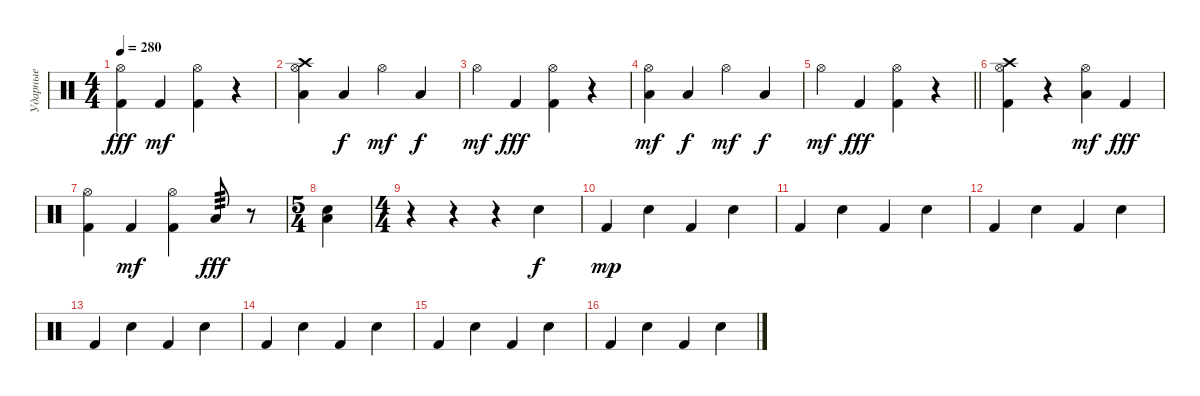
\track ("Ударные" "Ударные") {instrument percussion}
\staff {score}
\articulation defaults
\ts (4 4)
\tempo 280
\clef neutral
\ks c
("Hi-Hat (open)" "Kick (hit) 2").4{dy fff} "Kick (hit) 2".4{dy mf} ("Hi-Hat (open)" "Kick (hit) 2").4 r.4 |
("Hi-Hat (open)" "Crash high (hit)" "Low Tom (hit)").4 "Low Tom (hit)".4{dy f} "Hi-Hat (open)".4{dy mf} "Low Tom (hit)".4{dy f} |
"Hi-Hat (open)".4{dy mf} "Kick (hit) 2".4{dy fff} ("Hi-Hat (open)" "Kick (hit) 2").4 r.4 |
("Hi-Hat (open)" "Low Tom (hit)").4{dy mf} "Low Tom (hit)".4{dy f} "Hi-Hat (open)".4{dy mf} "Low Tom (hit)".4{dy f} |
\barLineRight lightlight "Hi-Hat (open)".4{dy mf} "Kick (hit) 2".4{dy fff}
("Hi-Hat (open)" "Kick (hit) 2").4 r.4 |
("Hi-Hat (open)" "Crash high (hit)" "Kick (hit) 2").4 r.4 ("Hi-Hat (open)" "Low Tom (hit)").4{dy mf} "Kick (hit) 2".4{dy fff} |
("Hi-Hat (open)" "Kick (hit) 2").4 "Kick (hit) 2".4{dy mf} ("Hi-Hat (open)" "Kick (hit) 2").4 "Low Tom (hit)".8{tp 3 dy fff} r.8 |
\ts (5 4)
("Low Tom (hit)" "Snare (hit) 2").4 |
\ts (4 4)
r.4 r.4 r.4 "Snare (hit) 2".4{dy f} |
"Kick (hit) 2".4{dy mp} "Snare (hit) 2".4 "Kick (hit) 2".4 "Snare (hit) 2".4 |
"Kick (hit) 2".4 "Snare (hit) 2".4 "Kick (hit) 2".4 "Snare (hit) 2".4 |
"Kick (hit) 2".4 "Snare (hit) 2".4 "Kick (hit) 2".4 "Snare (hit) 2".4 |
"Kick (hit) 2".4 "Snare (hit) 2".4 "Kick (hit) 2".4 "Snare (hit) 2".4 |
"Kick (hit) 2".4 "Snare (hit) 2".4 "Kick (hit) 2".4 "Snare (hit) 2".4 |
"Kick (hit) 2".4 "Snare (hit) 2".4 "Kick (hit) 2".4 "Snare (hit) 2".4 |
"Kick (hit) 2".4 "Snare (hit) 2".4 "Kick (hit) 2".4 "Snare (hit) 2".4
